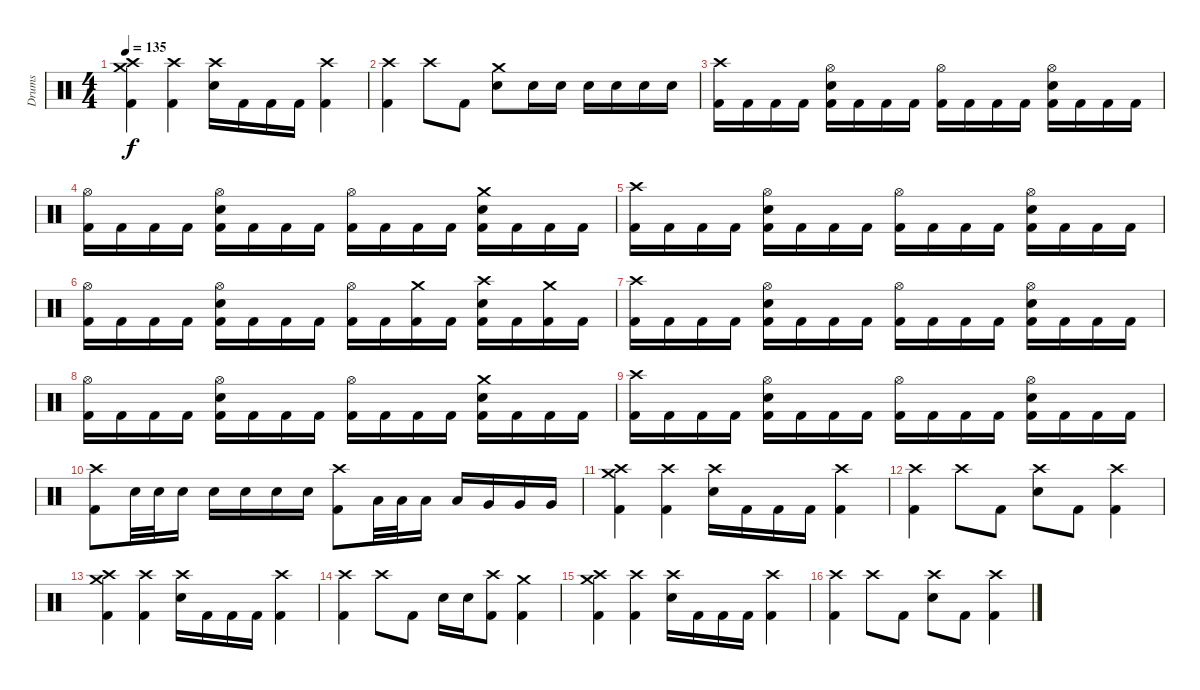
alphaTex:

\track ("Drums" "Drums") {instrument percussion}
\staff {score}
\articulation defaults
\ts (4 4)
\tempo 135
\clef neutral
\ks c
("Crash high (hit)" "Crash medium (hit)" "Kick (hit) 2").4{dy f} ("Crash high (hit)" "Kick (hit) 2").4 ("Crash high (hit)" "Electric Snare (hit)").16 "Kick (hit) 2".16 "Kick (hit) 2".16 "Kick (hit) 2".16 ("Crash high (hit)" "Kick (hit) 2").4 |
("Crash high (hit)" "Kick (hit) 2").4 "Crash high (hit)".8 "Kick (hit) 2".8 ("Crash medium (hit)" "Electric Snare (hit)").8 "Electric Snare (hit)".16 "Electric Snare (hit)".16 "Electric Snare (hit)".16 "Electric Snare (hit)".16 "Electric Snare (hit)".16 "Electric Snare (hit)".16 |
("Crash high (hit)" "Kick (hit) 2").16 "Kick (hit) 2".16 "Kick (hit) 2".16 "Kick (hit) 2".16 ("Hi-Hat (open)" "Electric Snare (hit)" "Kick (hit) 2").16 "Kick (hit) 2".16 "Kick (hit) 2".16 "Kick (hit) 2".16 ("Hi-Hat (open)" "Kick (hit) 2").16 "Kick (hit) 2".16 "Kick (hit) 2".16 "Kick (hit) 2".16 ("Hi-Hat (open)" "Electric Snare (hit)" "Kick (hit) 2").16 "Kick (hit) 2".16 "Kick (hit) 2".16 "Kick (hit) 2".16 |
("Hi-Hat (open)" "Kick (hit) 2").16 "Kick (hit) 2".16 "Kick (hit) 2".16 "Kick (hit) 2".16 ("Hi-Hat (open)" "Electric Snare (hit)" "Kick (hit) 2").16 "Kick (hit) 2".16 "Kick (hit) 2".16 "Kick (hit) 2".16 ("Hi-Hat (open)" "Kick (hit) 2").16 "Kick (hit) 2".16 "Kick (hit) 2".16 "Kick (hit) 2".16 ("Crash medium (hit)" "Electric Snare (hit)" "Kick (hit) 2").16 "Kick (hit) 2".16 "Kick (hit) 2".16 "Kick (hit) 2".16 |
("Crash high (hit)" "Kick (hit) 2").16 "Kick (hit) 2".16 "Kick (hit) 2".16 "Kick (hit) 2".16 ("Hi-Hat (open)" "Electric Snare (hit)" "Kick (hit) 2").16 "Kick (hit) 2".16 "Kick (hit) 2".16 "Kick (hit) 2".16 ("Hi-Hat (open)" "Kick (hit) 2").16 "Kick (hit) 2".16 "Kick (hit) 2".16 "Kick (hit) 2".16 ("Hi-Hat (open)" "Electric Snare (hit)" "Kick (hit) 2").16 "Kick (hit) 2".16 "Kick (hit) 2".16 "Kick (hit) 2".16 |
("Hi-Hat (open)" "Kick (hit) 2").16 "Kick (hit) 2".16 "Kick (hit) 2".16 "Kick (hit) 2".16 ("Hi-Hat (open)" "Electric Snare (hit)" "Kick (hit) 2").16 "Kick (hit) 2".16 "Kick (hit) 2".16 "Kick (hit) 2".16 ("Hi-Hat (open)" "Kick (hit) 2").16 "Kick (hit) 2".16 ("Crash medium (hit)" "Kick (hit) 2").16 "Kick (hit) 2".16 ("Crash high (hit)" "Electric Snare (hit)" "Kick (hit) 2").16 "Kick (hit) 2".16 ("Crash medium (hit)" "Kick (hit) 2").16 "Kick (hit) 2".16 |
("Crash high (hit)" "Kick (hit) 2").16 "Kick (hit) 2".16 "Kick (hit) 2".16 "Kick (hit) 2".16 ("Hi-Hat (open)" "Electric Snare (hit)" "Kick (hit) 2").16 "Kick (hit) 2".16 "Kick (hit) 2".16 "Kick (hit) 2".16 ("Hi-Hat (open)" "Kick (hit) 2").16 "Kick (hit) 2".16 "Kick (hit) 2".16 "Kick (hit) 2".16 ("Hi-Hat (open)" "Electric Snare (hit)" "Kick (hit) 2").16 "Kick (hit) 2".16 "Kick (hit) 2".16 "Kick (hit) 2".16 |
("Hi-Hat (open)" "Kick (hit) 2").16 "Kick (hit) 2".16 "Kick (hit) 2".16 "Kick (hit) 2".16 ("Hi-Hat (open)" "Electric Snare (hit)" "Kick (hit) 2").16 "Kick (hit) 2".16 "Kick (hit) 2".16 "Kick (hit) 2".16 ("Hi-Hat (open)" "Kick (hit) 2").16 "Kick (hit) 2".16 "Kick (hit) 2".16 "Kick (hit) 2".16 ("Crash medium (hit)" "Electric Snare (hit)" "Kick (hit) 2").16 "Kick (hit) 2".16 "Kick (hit) 2".16 "Kick (hit) 2".16 |
("Crash high (hit)" "Kick (hit) 2").16 "Kick (hit) 2".16 "Kick (hit) 2".16 "Kick (hit) 2".16 ("Hi-Hat (open)" "Electric Snare (hit)" "Kick (hit) 2").16 "Kick (hit) 2".16 "Kick (hit) 2".16 "Kick (hit) 2".16 ("Hi-Hat (open)" "Kick (hit) 2").16 "Kick (hit) 2".16 "Kick (hit) 2".16 "Kick (hit) 2".16 ("Hi-Hat (open)" "Electric Snare (hit)" "Kick (hit) 2").16 "Kick (hit) 2".16 "Kick (hit) 2".16 "Kick (hit) 2".16 |
("Crash high (hit)" "Kick (hit) 2").8 "Electric Snare (hit)".32 "Electric Snare (hit)".32 "Electric Snare (hit)".16 "Electric Snare (hit)".16 "Electric Snare (hit)".16 "Electric Snare (hit)".16 "Electric Snare (hit)".16 ("Crash high (hit)" "Kick (hit) 2").8 "Low Tom (hit)".32 "Low Tom (hit)".32 "Low Tom (hit)".16 "Low Tom (hit)".16 "Very Low Tom (hit)".16 "Very Low Tom (hit)".16 "Very Low Tom (hit)".16 |
("Crash high (hit)" "Crash medium (hit)" "Kick (hit) 2").4 ("Crash high (hit)" "Kick (hit) 2").4 ("Crash high (hit)" "Electric Snare (hit)").16 "Kick (hit) 2".16 "Kick (hit) 2".16 "Kick (hit) 2".16 ("Crash high (hit)" "Kick (hit) 2").4 |
("Crash high (hit)" "Kick (hit) 2").4 "Crash high (hit)".8 "Kick (hit) 2".8 ("Crash high (hit)" "Electric Snare (hit)").8 "Kick (hit) 2".8 ("Crash high (hit)" "Kick (hit) 2").4 |
("Crash high (hit)" "Crash medium (hit)" "Kick (hit) 2").4 ("Crash high (hit)" "Kick (hit) 2").4 ("Crash high (hit)" "Electric Snare (hit)").16 "Kick (hit) 2".16 "Kick (hit) 2".16 "Kick (hit) 2".16 ("Crash high (hit)" "Kick (hit) 2").4 |
("Crash high (hit)" "Kick (hit) 2").4 "Crash high (hit)".8 "Kick (hit) 2".8 "Electric Snare (hit)".16 "Electric Snare (hit)".16 ("Crash high (hit)" "Kick (hit) 2").8 ("Crash medium (hit)" "Kick (hit) 2").4 |
("Crash high (hit)" "Crash medium (hit)" "Kick (hit) 2").4 ("Crash high (hit)" "Kick (hit) 2").4 ("Crash high (hit)" "Electric Snare (hit)").16 "Kick (hit) 2".16 "Kick (hit) 2".16 "Kick (hit) 2".16 ("Crash high (hit)" "Kick (hit) 2").4 |
("Crash high (hit)" "Kick (hit) 2").4 "Crash high (hit)".8 "Kick (hit) 2".8 ("Crash high (hit)" "Electric Snare (hit)").8 "Kick (hit) 2".8 ("Crash high (hit)" "Kick (hit) 2").4
